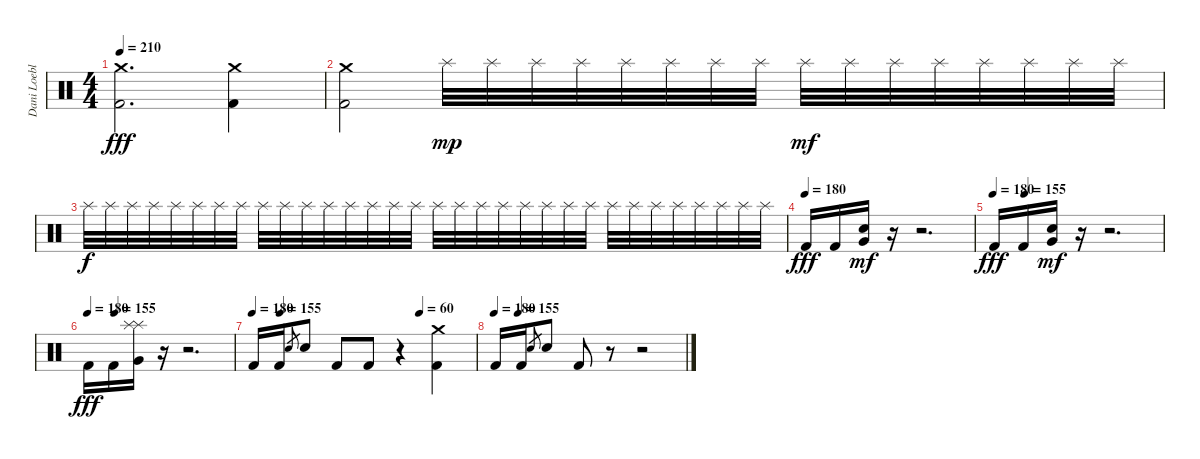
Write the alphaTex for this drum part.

\track ("Dani Loeble" "Dani Loebl") {instrument percussion}
\staff {score}
\articulation defaults
\ts (4 4)
\tempo 210
\clef neutral
\ks c
("Crash medium (hit)" "Kick (hit) 2").2{d dy fff} ("Crash medium (hit)" "Kick (hit) 2").4 |
("Crash medium (hit)" "Kick (hit) 2").2 "Splash (hit)".32{dy mp} "Splash (hit)".32 "Splash (hit)".32 "Splash (hit)".32 "Splash (hit)".32 "Splash (hit)".32 "Splash (hit)".32 "Splash (hit)".32 "Splash (hit)".32{dy mf} "Splash (hit)".32 "Splash (hit)".32 "Splash (hit)".32 "Splash (hit)".32 "Splash (hit)".32 "Splash (hit)".32 "Splash (hit)".32 |
"Splash (hit)".32{dy f} "Splash (hit)".32 "Splash (hit)".32 "Splash (hit)".32 "Splash (hit)".32 "Splash (hit)".32 "Splash (hit)".32 "Splash (hit)".32 "Splash (hit)".32 "Splash (hit)".32 "Splash (hit)".32 "Splash (hit)".32 "Splash (hit)".32 "Splash (hit)".32 "Splash (hit)".32 "Splash (hit)".32 "Splash (hit)".32 "Splash (hit)".32 "Splash (hit)".32 "Splash (hit)".32 "Splash (hit)".32 "Splash (hit)".32 "Splash (hit)".32 "Splash (hit)".32 "Splash (hit)".32 "Splash (hit)".32 "Splash (hit)".32 "Splash (hit)".32 "Splash (hit)".32 "Splash (hit)".32 "Splash (hit)".32 "Splash (hit)".32 |
\tempo (180)
"Kick (hit) 2".16{dy fff} "Kick (hit) 2".16 ("Very Low Tom (hit)" "Snare (hit) 2").16{dy mf} r.16 r.2{d} |
\tempo 180
\tempo (155 0.1875)
"Kick (hit) 2".16{dy fff} "Kick (hit) 2".16 ("Very Low Tom (hit)" "Snare (hit) 2").16{dy mf} r.16 r.2{d} |
\tempo 180
\tempo (155 0.1875)
"Kick (hit) 2".16{dy fff} "Kick (hit) 2".16 ("Splash (hit)" "Splash (hit)" "Very Low Tom (hit)").16 r.16 r.2{d} |
\tempo 180
\tempo (155 0.125)
\tempo (60 0.75)
"Kick (hit) 2".16 "Kick (hit) 2".16 "Electric Snare (hit)".8{gr} "Electric Snare (hit)".8 "Kick (hit) 2".8 "Kick (hit) 2".8 r.4 ("Crash medium (hit)" "Kick (hit) 2").4 |
\tempo 180
\tempo (155 0.125)
"Kick (hit) 2".16 "Kick (hit) 2".16 "Electric Snare (hit)".8{gr} "Electric Snare (hit)".8 "Kick (hit) 2".8 r.8 r.2
